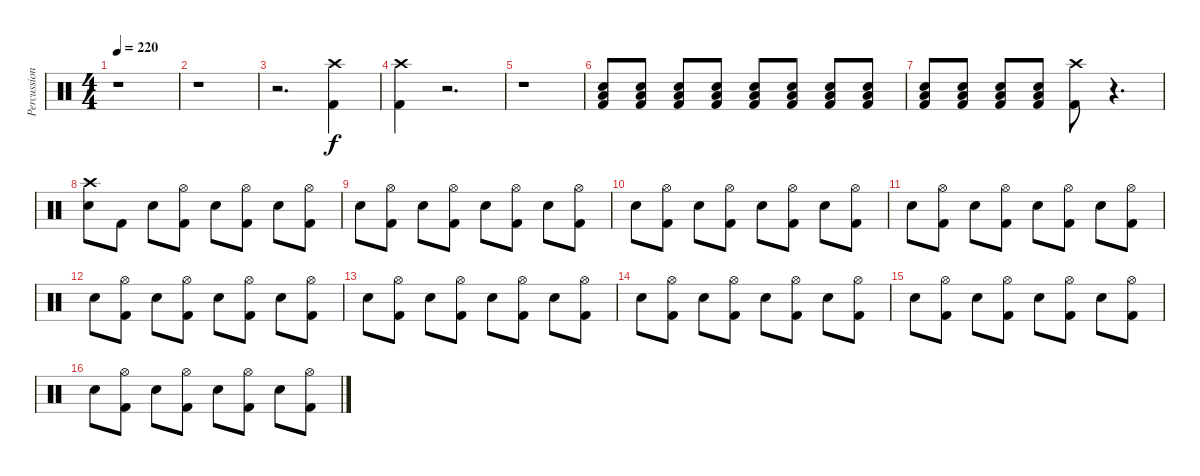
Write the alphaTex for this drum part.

\track ("Percussion" "Percussion") {instrument percussion}
\staff {score}
\articulation defaults
\ts (4 4)
\tempo 220
\clef neutral
\ks c
r.1{dy f} |
r.1 |
r.2{d} ("Crash high (hit)" "Kick (hit) 2").4 |
("Crash high (hit)" "Kick (hit) 2").4 r.2{d} |
r.1 |
("Electric Snare (hit)" "Low Tom (hit)" "Kick (hit) 2").8 ("Electric Snare (hit)" "Low Tom (hit)" "Kick (hit) 2").8 ("Electric Snare (hit)" "Low Tom (hit)" "Kick (hit) 2").8 ("Electric Snare (hit)" "Low Tom (hit)" "Kick (hit) 2").8 ("Electric Snare (hit)" "Low Tom (hit)" "Kick (hit) 2").8 ("Electric Snare (hit)" "Low Tom (hit)" "Kick (hit) 2").8 ("Electric Snare (hit)" "Low Tom (hit)" "Kick (hit) 2").8 ("Electric Snare (hit)" "Low Tom (hit)" "Kick (hit) 2").8 |
("Electric Snare (hit)" "Low Tom (hit)" "Kick (hit) 2").8 ("Electric Snare (hit)" "Low Tom (hit)" "Kick (hit) 2").8 ("Electric Snare (hit)" "Low Tom (hit)" "Kick (hit) 2").8 ("Electric Snare (hit)" "Low Tom (hit)" "Kick (hit) 2").8 ("Crash high (hit)" "Kick (hit) 2").8 r.4{d} |
("Crash high (hit)" "Electric Snare (hit)").8 "Kick (hit) 2".8 "Electric Snare (hit)".8 ("Hi-Hat (open)" "Kick (hit) 2").8 "Electric Snare (hit)".8 ("Hi-Hat (open)" "Kick (hit) 2").8 "Electric Snare (hit)".8 ("Hi-Hat (open)" "Kick (hit) 2").8 |
"Electric Snare (hit)".8 ("Hi-Hat (open)" "Kick (hit) 2").8 "Electric Snare (hit)".8 ("Hi-Hat (open)" "Kick (hit) 2").8 "Electric Snare (hit)".8 ("Hi-Hat (open)" "Kick (hit) 2").8 "Electric Snare (hit)".8 ("Hi-Hat (open)" "Kick (hit) 2").8 |
"Electric Snare (hit)".8 ("Hi-Hat (open)" "Kick (hit) 2").8 "Electric Snare (hit)".8 ("Hi-Hat (open)" "Kick (hit) 2").8 "Electric Snare (hit)".8 ("Hi-Hat (open)" "Kick (hit) 2").8 "Electric Snare (hit)".8 ("Hi-Hat (open)" "Kick (hit) 2").8 |
"Electric Snare (hit)".8 ("Hi-Hat (open)" "Kick (hit) 2").8 "Electric Snare (hit)".8 ("Hi-Hat (open)" "Kick (hit) 2").8 "Electric Snare (hit)".8 ("Hi-Hat (open)" "Kick (hit) 2").8 "Electric Snare (hit)".8 ("Hi-Hat (open)" "Kick (hit) 2").8 |
"Electric Snare (hit)".8 ("Hi-Hat (open)" "Kick (hit) 2").8 "Electric Snare (hit)".8 ("Hi-Hat (open)" "Kick (hit) 2").8 "Electric Snare (hit)".8 ("Hi-Hat (open)" "Kick (hit) 2").8 "Electric Snare (hit)".8 ("Hi-Hat (open)" "Kick (hit) 2").8 |
"Electric Snare (hit)".8 ("Hi-Hat (open)" "Kick (hit) 2").8 "Electric Snare (hit)".8 ("Hi-Hat (open)" "Kick (hit) 2").8 "Electric Snare (hit)".8 ("Hi-Hat (open)" "Kick (hit) 2").8 "Electric Snare (hit)".8 ("Hi-Hat (open)" "Kick (hit) 2").8 |
"Electric Snare (hit)".8 ("Hi-Hat (open)" "Kick (hit) 2").8 "Electric Snare (hit)".8 ("Hi-Hat (open)" "Kick (hit) 2").8 "Electric Snare (hit)".8 ("Hi-Hat (open)" "Kick (hit) 2").8 "Electric Snare (hit)".8 ("Hi-Hat (open)" "Kick (hit) 2").8 |
"Electric Snare (hit)".8 ("Hi-Hat (open)" "Kick (hit) 2").8 "Electric Snare (hit)".8 ("Hi-Hat (open)" "Kick (hit) 2").8 "Electric Snare (hit)".8 ("Hi-Hat (open)" "Kick (hit) 2").8 "Electric Snare (hit)".8 ("Hi-Hat (open)" "Kick (hit) 2").8 |
"Electric Snare (hit)".8 ("Hi-Hat (open)" "Kick (hit) 2").8 "Electric Snare (hit)".8 ("Hi-Hat (open)" "Kick (hit) 2").8 "Electric Snare (hit)".8 ("Hi-Hat (open)" "Kick (hit) 2").8 "Electric Snare (hit)".8 ("Hi-Hat (open)" "Kick (hit) 2").8
